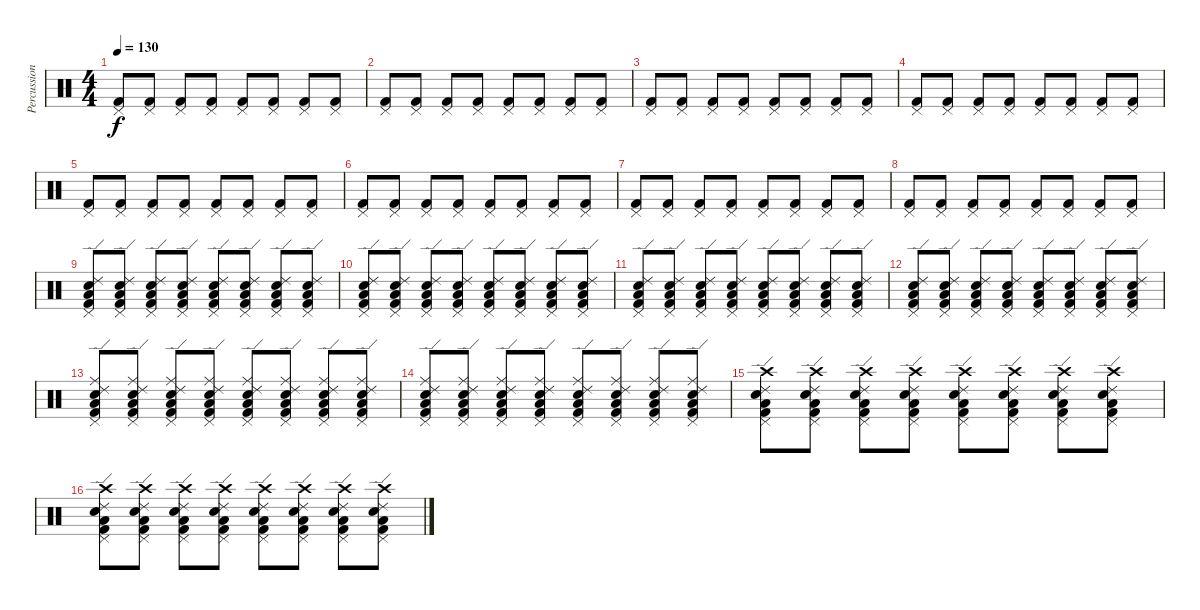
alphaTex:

\track ("Percussion" "Percussion") {instrument percussion}
\staff {score}
\articulation defaults
\ts (4 4)
\tempo 130
\clef neutral
\ks c
("Pedal Hi-Hat (hit)" "Kick (hit) 2").8{dy f} ("Pedal Hi-Hat (hit)" "Kick (hit) 2").8 ("Pedal Hi-Hat (hit)" "Kick (hit) 2").8 ("Pedal Hi-Hat (hit)" "Kick (hit) 2").8 ("Pedal Hi-Hat (hit)" "Kick (hit) 2").8 ("Pedal Hi-Hat (hit)" "Kick (hit) 2").8 ("Pedal Hi-Hat (hit)" "Kick (hit) 2").8 ("Pedal Hi-Hat (hit)" "Kick (hit) 2").8 |
("Pedal Hi-Hat (hit)" "Kick (hit) 2").8 ("Pedal Hi-Hat (hit)" "Kick (hit) 2").8 ("Pedal Hi-Hat (hit)" "Kick (hit) 2").8 ("Pedal Hi-Hat (hit)" "Kick (hit) 2").8 ("Pedal Hi-Hat (hit)" "Kick (hit) 2").8 ("Pedal Hi-Hat (hit)" "Kick (hit) 2").8 ("Pedal Hi-Hat (hit)" "Kick (hit) 2").8 ("Pedal Hi-Hat (hit)" "Kick (hit) 2").8 |
("Pedal Hi-Hat (hit)" "Kick (hit) 2").8 ("Pedal Hi-Hat (hit)" "Kick (hit) 2").8 ("Pedal Hi-Hat (hit)" "Kick (hit) 2").8 ("Pedal Hi-Hat (hit)" "Kick (hit) 2").8 ("Pedal Hi-Hat (hit)" "Kick (hit) 2").8 ("Pedal Hi-Hat (hit)" "Kick (hit) 2").8 ("Pedal Hi-Hat (hit)" "Kick (hit) 2").8 ("Pedal Hi-Hat (hit)" "Kick (hit) 2").8 |
("Pedal Hi-Hat (hit)" "Kick (hit) 2").8 ("Pedal Hi-Hat (hit)" "Kick (hit) 2").8 ("Pedal Hi-Hat (hit)" "Kick (hit) 2").8 ("Pedal Hi-Hat (hit)" "Kick (hit) 2").8 ("Pedal Hi-Hat (hit)" "Kick (hit) 2").8 ("Pedal Hi-Hat (hit)" "Kick (hit) 2").8 ("Pedal Hi-Hat (hit)" "Kick (hit) 2").8 ("Pedal Hi-Hat (hit)" "Kick (hit) 2").8 |
("Pedal Hi-Hat (hit)" "Kick (hit) 2").8 ("Pedal Hi-Hat (hit)" "Kick (hit) 2").8 ("Pedal Hi-Hat (hit)" "Kick (hit) 2").8 ("Pedal Hi-Hat (hit)" "Kick (hit) 2").8 ("Pedal Hi-Hat (hit)" "Kick (hit) 2").8 ("Pedal Hi-Hat (hit)" "Kick (hit) 2").8 ("Pedal Hi-Hat (hit)" "Kick (hit) 2").8 ("Pedal Hi-Hat (hit)" "Kick (hit) 2").8 |
("Pedal Hi-Hat (hit)" "Kick (hit) 2").8 ("Pedal Hi-Hat (hit)" "Kick (hit) 2").8 ("Pedal Hi-Hat (hit)" "Kick (hit) 2").8 ("Pedal Hi-Hat (hit)" "Kick (hit) 2").8 ("Pedal Hi-Hat (hit)" "Kick (hit) 2").8 ("Pedal Hi-Hat (hit)" "Kick (hit) 2").8 ("Pedal Hi-Hat (hit)" "Kick (hit) 2").8 ("Pedal Hi-Hat (hit)" "Kick (hit) 2").8 |
("Pedal Hi-Hat (hit)" "Kick (hit) 2").8 ("Pedal Hi-Hat (hit)" "Kick (hit) 2").8 ("Pedal Hi-Hat (hit)" "Kick (hit) 2").8 ("Pedal Hi-Hat (hit)" "Kick (hit) 2").8 ("Pedal Hi-Hat (hit)" "Kick (hit) 2").8 ("Pedal Hi-Hat (hit)" "Kick (hit) 2").8 ("Pedal Hi-Hat (hit)" "Kick (hit) 2").8 ("Pedal Hi-Hat (hit)" "Kick (hit) 2").8 |
("Pedal Hi-Hat (hit)" "Kick (hit) 2").8 ("Pedal Hi-Hat (hit)" "Kick (hit) 2").8 ("Pedal Hi-Hat (hit)" "Kick (hit) 2").8 ("Pedal Hi-Hat (hit)" "Kick (hit) 2").8 ("Pedal Hi-Hat (hit)" "Kick (hit) 2").8 ("Pedal Hi-Hat (hit)" "Kick (hit) 2").8 ("Pedal Hi-Hat (hit)" "Kick (hit) 2").8 ("Pedal Hi-Hat (hit)" "Kick (hit) 2").8 |
("Low Tom (hit)" "Snare (hit) 2" "Pedal Hi-Hat (hit)" "Kick (hit) 2" "Ride (edge) 2").8 ("Low Tom (hit)" "Snare (hit) 2" "Pedal Hi-Hat (hit)" "Kick (hit) 2" "Ride (edge) 2").8 ("Low Tom (hit)" "Snare (hit) 2" "Pedal Hi-Hat (hit)" "Kick (hit) 2" "Ride (edge) 2").8 ("Low Tom (hit)" "Snare (hit) 2" "Pedal Hi-Hat (hit)" "Kick (hit) 2" "Ride (edge) 2").8 ("Low Tom (hit)" "Snare (hit) 2" "Pedal Hi-Hat (hit)" "Kick (hit) 2" "Ride (edge) 2").8 ("Low Tom (hit)" "Snare (hit) 2" "Pedal Hi-Hat (hit)" "Kick (hit) 2" "Ride (edge) 2").8 ("Low Tom (hit)" "Snare (hit) 2" "Pedal Hi-Hat (hit)" "Kick (hit) 2" "Ride (edge) 2").8 ("Low Tom (hit)" "Snare (hit) 2" "Pedal Hi-Hat (hit)" "Kick (hit) 2" "Ride (edge) 2").8 |
("Low Tom (hit)" "Snare (hit) 2" "Pedal Hi-Hat (hit)" "Kick (hit) 2" "Ride (edge) 2").8 ("Low Tom (hit)" "Snare (hit) 2" "Pedal Hi-Hat (hit)" "Kick (hit) 2" "Ride (edge) 2").8 ("Low Tom (hit)" "Snare (hit) 2" "Pedal Hi-Hat (hit)" "Kick (hit) 2" "Ride (edge) 2").8 ("Low Tom (hit)" "Snare (hit) 2" "Pedal Hi-Hat (hit)" "Kick (hit) 2" "Ride (edge) 2").8 ("Low Tom (hit)" "Snare (hit) 2" "Pedal Hi-Hat (hit)" "Kick (hit) 2" "Ride (edge) 2").8 ("Low Tom (hit)" "Snare (hit) 2" "Pedal Hi-Hat (hit)" "Kick (hit) 2" "Ride (edge) 2").8 ("Low Tom (hit)" "Snare (hit) 2" "Pedal Hi-Hat (hit)" "Kick (hit) 2" "Ride (edge) 2").8 ("Low Tom (hit)" "Snare (hit) 2" "Pedal Hi-Hat (hit)" "Kick (hit) 2" "Ride (edge) 2").8 |
("Low Tom (hit)" "Snare (hit) 2" "Pedal Hi-Hat (hit)" "Kick (hit) 2" "Ride (edge) 2").8 ("Low Tom (hit)" "Snare (hit) 2" "Pedal Hi-Hat (hit)" "Kick (hit) 2" "Ride (edge) 2").8 ("Low Tom (hit)" "Snare (hit) 2" "Pedal Hi-Hat (hit)" "Kick (hit) 2" "Ride (edge) 2").8 ("Low Tom (hit)" "Snare (hit) 2" "Pedal Hi-Hat (hit)" "Kick (hit) 2" "Ride (edge) 2").8 ("Low Tom (hit)" "Snare (hit) 2" "Pedal Hi-Hat (hit)" "Kick (hit) 2" "Ride (edge) 2").8 ("Low Tom (hit)" "Snare (hit) 2" "Pedal Hi-Hat (hit)" "Kick (hit) 2" "Ride (edge) 2").8 ("Low Tom (hit)" "Snare (hit) 2" "Pedal Hi-Hat (hit)" "Kick (hit) 2" "Ride (edge) 2").8 ("Low Tom (hit)" "Snare (hit) 2" "Pedal Hi-Hat (hit)" "Kick (hit) 2" "Ride (edge) 2").8 |
("Low Tom (hit)" "Snare (hit) 2" "Pedal Hi-Hat (hit)" "Kick (hit) 2" "Ride (edge) 2").8 ("Low Tom (hit)" "Snare (hit) 2" "Pedal Hi-Hat (hit)" "Kick (hit) 2" "Ride (edge) 2").8 ("Low Tom (hit)" "Snare (hit) 2" "Pedal Hi-Hat (hit)" "Kick (hit) 2" "Ride (edge) 2").8 ("Low Tom (hit)" "Snare (hit) 2" "Pedal Hi-Hat (hit)" "Kick (hit) 2" "Ride (edge) 2").8 ("Low Tom (hit)" "Snare (hit) 2" "Pedal Hi-Hat (hit)" "Kick (hit) 2" "Ride (edge) 2").8 ("Low Tom (hit)" "Snare (hit) 2" "Pedal Hi-Hat (hit)" "Kick (hit) 2" "Ride (edge) 2").8 ("Low Tom (hit)" "Snare (hit) 2" "Pedal Hi-Hat (hit)" "Kick (hit) 2" "Ride (edge) 2").8 ("Low Tom (hit)" "Snare (hit) 2" "Pedal Hi-Hat (hit)" "Kick (hit) 2" "Ride (edge) 2").8 |
("Ride (edge) 2" "Low Tom (hit)" "Snare (hit) 2" "Pedal Hi-Hat (hit)" "Kick (hit) 2" "Ride (middle)").8 ("Ride (edge) 2" "Low Tom (hit)" "Snare (hit) 2" "Pedal Hi-Hat (hit)" "Kick (hit) 2" "Ride (middle)").8 ("Ride (edge) 2" "Low Tom (hit)" "Snare (hit) 2" "Pedal Hi-Hat (hit)" "Kick (hit) 2" "Ride (middle)").8 ("Ride (edge) 2" "Low Tom (hit)" "Snare (hit) 2" "Pedal Hi-Hat (hit)" "Kick (hit) 2" "Ride (middle)").8 ("Ride (edge) 2" "Low Tom (hit)" "Snare (hit) 2" "Pedal Hi-Hat (hit)" "Kick (hit) 2" "Ride (middle)").8 ("Ride (edge) 2" "Low Tom (hit)" "Snare (hit) 2" "Pedal Hi-Hat (hit)" "Kick (hit) 2" "Ride (middle)").8 ("Ride (edge) 2" "Low Tom (hit)" "Snare (hit) 2" "Pedal Hi-Hat (hit)" "Kick (hit) 2" "Ride (middle)").8 ("Ride (edge) 2" "Low Tom (hit)" "Snare (hit) 2" "Pedal Hi-Hat (hit)" "Kick (hit) 2" "Ride (middle)").8 |
("Ride (edge) 2" "Low Tom (hit)" "Snare (hit) 2" "Pedal Hi-Hat (hit)" "Kick (hit) 2" "Ride (middle)").8 ("Ride (edge) 2" "Low Tom (hit)" "Snare (hit) 2" "Pedal Hi-Hat (hit)" "Kick (hit) 2" "Ride (middle)").8 ("Ride (edge) 2" "Low Tom (hit)" "Snare (hit) 2" "Pedal Hi-Hat (hit)" "Kick (hit) 2" "Ride (middle)").8 ("Ride (edge) 2" "Low Tom (hit)" "Snare (hit) 2" "Pedal Hi-Hat (hit)" "Kick (hit) 2" "Ride (middle)").8 ("Ride (edge) 2" "Low Tom (hit)" "Snare (hit) 2" "Pedal Hi-Hat (hit)" "Kick (hit) 2" "Ride (middle)").8 ("Ride (edge) 2" "Low Tom (hit)" "Snare (hit) 2" "Pedal Hi-Hat (hit)" "Kick (hit) 2" "Ride (middle)").8 ("Ride (edge) 2" "Low Tom (hit)" "Snare (hit) 2" "Pedal Hi-Hat (hit)" "Kick (hit) 2" "Ride (middle)").8 ("Ride (edge) 2" "Low Tom (hit)" "Snare (hit) 2" "Pedal Hi-Hat (hit)" "Kick (hit) 2" "Ride (middle)").8 |
("Ride (edge) 2" "Low Tom (hit)" "Snare (hit) 2" "Pedal Hi-Hat (hit)" "Kick (hit) 2" "Crash high (hit)").8 ("Ride (edge) 2" "Low Tom (hit)" "Snare (hit) 2" "Pedal Hi-Hat (hit)" "Kick (hit) 2" "Crash high (hit)").8 ("Ride (edge) 2" "Low Tom (hit)" "Snare (hit) 2" "Pedal Hi-Hat (hit)" "Kick (hit) 2" "Crash high (hit)").8 ("Ride (edge) 2" "Low Tom (hit)" "Snare (hit) 2" "Pedal Hi-Hat (hit)" "Kick (hit) 2" "Crash high (hit)").8 ("Ride (edge) 2" "Low Tom (hit)" "Snare (hit) 2" "Pedal Hi-Hat (hit)" "Kick (hit) 2" "Crash high (hit)").8 ("Ride (edge) 2" "Low Tom (hit)" "Snare (hit) 2" "Pedal Hi-Hat (hit)" "Kick (hit) 2" "Crash high (hit)").8 ("Ride (edge) 2" "Low Tom (hit)" "Snare (hit) 2" "Pedal Hi-Hat (hit)" "Kick (hit) 2" "Crash high (hit)").8 ("Ride (edge) 2" "Low Tom (hit)" "Snare (hit) 2" "Pedal Hi-Hat (hit)" "Kick (hit) 2" "Crash high (hit)").8 |
("Ride (edge) 2" "Low Tom (hit)" "Snare (hit) 2" "Pedal Hi-Hat (hit)" "Kick (hit) 2" "Crash high (hit)").8 ("Ride (edge) 2" "Low Tom (hit)" "Snare (hit) 2" "Pedal Hi-Hat (hit)" "Kick (hit) 2" "Crash high (hit)").8 ("Ride (edge) 2" "Low Tom (hit)" "Snare (hit) 2" "Pedal Hi-Hat (hit)" "Kick (hit) 2" "Crash high (hit)").8 ("Ride (edge) 2" "Low Tom (hit)" "Snare (hit) 2" "Pedal Hi-Hat (hit)" "Kick (hit) 2" "Crash high (hit)").8 ("Ride (edge) 2" "Low Tom (hit)" "Snare (hit) 2" "Pedal Hi-Hat (hit)" "Kick (hit) 2" "Crash high (hit)").8 ("Ride (edge) 2" "Low Tom (hit)" "Snare (hit) 2" "Pedal Hi-Hat (hit)" "Kick (hit) 2" "Crash high (hit)").8 ("Ride (edge) 2" "Low Tom (hit)" "Snare (hit) 2" "Pedal Hi-Hat (hit)" "Kick (hit) 2" "Crash high (hit)").8 ("Ride (edge) 2" "Low Tom (hit)" "Snare (hit) 2" "Pedal Hi-Hat (hit)" "Kick (hit) 2" "Crash high (hit)").8
